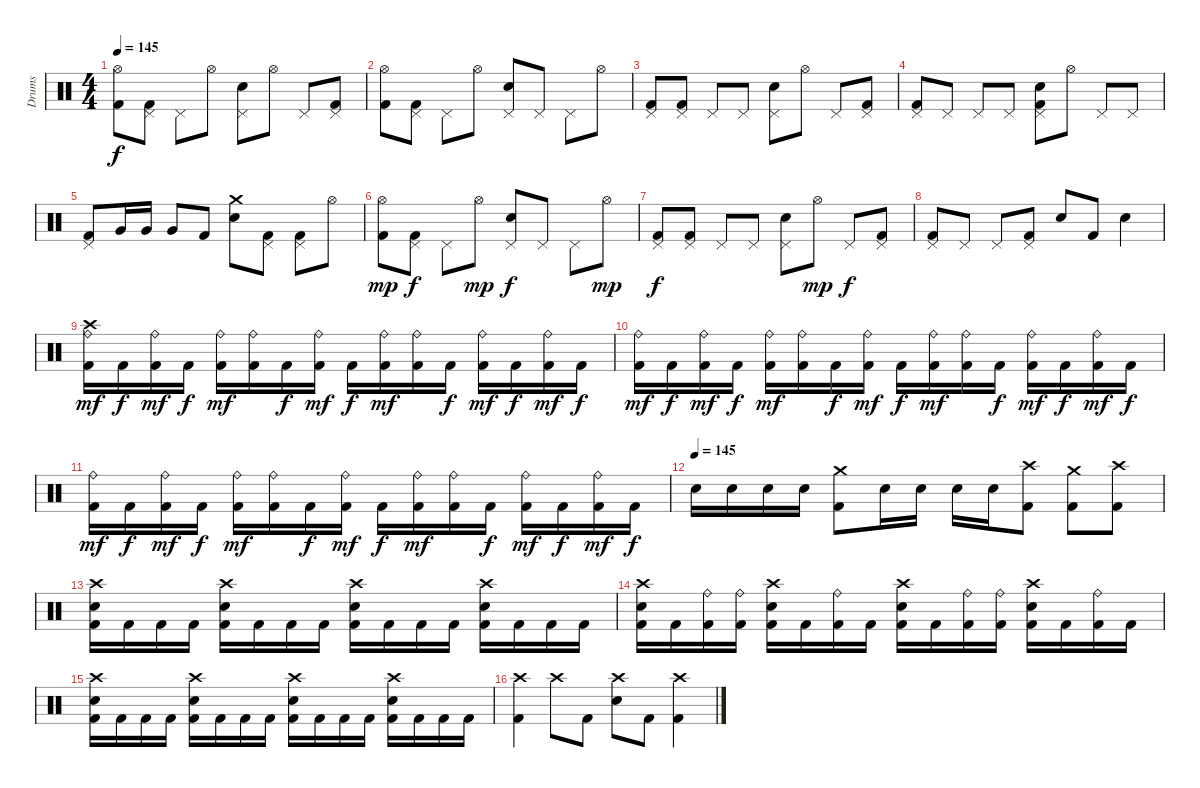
\track ("Drums" "Drums") {instrument percussion}
\staff {score}
\articulation defaults
\ts (4 4)
\tempo 145
\clef neutral
\ks c
("Hi-Hat (open)" "Kick (hit) 2").8{dy f} ("Pedal Hi-Hat (hit)" "Kick (hit) 2").8 "Pedal Hi-Hat (hit)".8 "Hi-Hat (open)".8 ("Pedal Hi-Hat (hit)" "Electric Snare (hit)").8 "Hi-Hat (open)".8 "Pedal Hi-Hat (hit)".8 ("Pedal Hi-Hat (hit)" "Kick (hit) 2").8 |
("Hi-Hat (open)" "Kick (hit) 2").8 ("Pedal Hi-Hat (hit)" "Kick (hit) 2").8 "Pedal Hi-Hat (hit)".8 "Hi-Hat (open)".8 ("Pedal Hi-Hat (hit)" "Electric Snare (hit)").8 "Pedal Hi-Hat (hit)".8 "Pedal Hi-Hat (hit)".8 "Hi-Hat (open)".8 |
("Pedal Hi-Hat (hit)" "Kick (hit) 2").8 ("Pedal Hi-Hat (hit)" "Kick (hit) 2").8 "Pedal Hi-Hat (hit)".8 "Pedal Hi-Hat (hit)".8 ("Pedal Hi-Hat (hit)" "Electric Snare (hit)").8 "Hi-Hat (open)".8 "Pedal Hi-Hat (hit)".8 ("Pedal Hi-Hat (hit)" "Kick (hit) 2").8 |
("Pedal Hi-Hat (hit)" "Kick (hit) 2").8 "Pedal Hi-Hat (hit)".8 "Pedal Hi-Hat (hit)".8 "Pedal Hi-Hat (hit)".8 ("Pedal Hi-Hat (hit)" "Electric Snare (hit)" "Kick (hit) 2").8 "Hi-Hat (open)".8 "Pedal Hi-Hat (hit)".8 "Pedal Hi-Hat (hit)".8 |
("Pedal Hi-Hat (hit)" "Kick (hit) 2").8 "Very Low Tom (hit)".16 "Very Low Tom (hit)".16 "Very Low Tom (hit)".8 "Kick (hit) 2".8 ("Crash medium (hit)" "Electric Snare (hit)").8 ("Pedal Hi-Hat (hit)" "Kick (hit) 2").8 ("Pedal Hi-Hat (hit)" "Kick (hit) 2").8 "Hi-Hat (open)".8 |
("Hi-Hat (open)" "Kick (hit) 2").8{dy mp} ("Pedal Hi-Hat (hit)" "Kick (hit) 2").8{dy f} "Pedal Hi-Hat (hit)".8 "Hi-Hat (open)".8{dy mp} ("Pedal Hi-Hat (hit)" "Electric Snare (hit)").8{dy f} "Pedal Hi-Hat (hit)".8 "Pedal Hi-Hat (hit)".8 "Hi-Hat (open)".8{dy mp} |
("Pedal Hi-Hat (hit)" "Kick (hit) 2").8{dy f} ("Pedal Hi-Hat (hit)" "Kick (hit) 2").8 "Pedal Hi-Hat (hit)".8 "Pedal Hi-Hat (hit)".8 ("Pedal Hi-Hat (hit)" "Electric Snare (hit)").8 "Hi-Hat (open)".8{dy mp} "Pedal Hi-Hat (hit)".8{dy f} ("Pedal Hi-Hat (hit)" "Kick (hit) 2").8 |
("Pedal Hi-Hat (hit)" "Kick (hit) 2").8 "Pedal Hi-Hat (hit)".8 "Pedal Hi-Hat (hit)".8 ("Pedal Hi-Hat (hit)" "Kick (hit) 2").8 "Electric Snare (hit)".8 "Kick (hit) 2".8 "Electric Snare (hit)".4 |
("Crash high (hit)" "Ride (bell)" "Kick (hit) 2").16{dy mf} "Kick (hit) 2".16{dy f} ("Ride (bell)" "Kick (hit) 2").16{dy mf} "Kick (hit) 2".16{dy f} ("Ride (bell)" "Kick (hit) 2").16{dy mf} ("Ride (bell)" "Kick (hit) 2").16 "Kick (hit) 2".16{dy f} ("Ride (bell)" "Kick (hit) 2").16{dy mf} "Kick (hit) 2".16{dy f} ("Ride (bell)" "Kick (hit) 2").16{dy mf} ("Ride (bell)" "Kick (hit) 2").16 "Kick (hit) 2".16{dy f} ("Ride (bell)" "Kick (hit) 2").16{dy mf} "Kick (hit) 2".16{dy f} ("Ride (bell)" "Kick (hit) 2").16{dy mf} "Kick (hit) 2".16{dy f} |
("Ride (bell)" "Kick (hit) 2").16{dy mf} "Kick (hit) 2".16{dy f} ("Ride (bell)" "Kick (hit) 2").16{dy mf} "Kick (hit) 2".16{dy f} ("Ride (bell)" "Kick (hit) 2").16{dy mf} ("Ride (bell)" "Kick (hit) 2").16 "Kick (hit) 2".16{dy f} ("Ride (bell)" "Kick (hit) 2").16{dy mf} "Kick (hit) 2".16{dy f} ("Ride (bell)" "Kick (hit) 2").16{dy mf} ("Ride (bell)" "Kick (hit) 2").16 "Kick (hit) 2".16{dy f} ("Ride (bell)" "Kick (hit) 2").16{dy mf} "Kick (hit) 2".16{dy f} ("Ride (bell)" "Kick (hit) 2").16{dy mf} "Kick (hit) 2".16{dy f} |
("Ride (bell)" "Kick (hit) 2").16{dy mf} "Kick (hit) 2".16{dy f} ("Ride (bell)" "Kick (hit) 2").16{dy mf} "Kick (hit) 2".16{dy f} ("Ride (bell)" "Kick (hit) 2").16{dy mf} ("Ride (bell)" "Kick (hit) 2").16 "Kick (hit) 2".16{dy f} ("Ride (bell)" "Kick (hit) 2").16{dy mf} "Kick (hit) 2".16{dy f} ("Ride (bell)" "Kick (hit) 2").16{dy mf} ("Ride (bell)" "Kick (hit) 2").16 "Kick (hit) 2".16{dy f} ("Ride (bell)" "Kick (hit) 2").16{dy mf} "Kick (hit) 2".16{dy f} ("Ride (bell)" "Kick (hit) 2").16{dy mf} "Kick (hit) 2".16{dy f} |
\tempo (145)
"Electric Snare (hit)".16 "Electric Snare (hit)".16 "Electric Snare (hit)".16 "Electric Snare (hit)".16 ("Crash medium (hit)" "Kick (hit) 2").8 "Electric Snare (hit)".16 "Electric Snare (hit)".16 "Electric Snare (hit)".16 "Electric Snare (hit)".16 ("Crash high (hit)" "Kick (hit) 2").8 ("Crash medium (hit)" "Kick (hit) 2").8 ("Crash high (hit)" "Kick (hit) 2").8 |
("Crash high (hit)" "Electric Snare (hit)" "Kick (hit) 2").16 "Kick (hit) 2".16 "Kick (hit) 2".16 "Kick (hit) 2".16 ("Crash high (hit)" "Electric Snare (hit)" "Kick (hit) 2").16 "Kick (hit) 2".16 "Kick (hit) 2".16 "Kick (hit) 2".16 ("Crash high (hit)" "Electric Snare (hit)" "Kick (hit) 2").16 "Kick (hit) 2".16 "Kick (hit) 2".16 "Kick (hit) 2".16 ("Crash high (hit)" "Electric Snare (hit)" "Kick (hit) 2").16 "Kick (hit) 2".16 "Kick (hit) 2".16 "Kick (hit) 2".16 |
("Crash high (hit)" "Electric Snare (hit)" "Kick (hit) 2").16 "Kick (hit) 2".16 ("Ride (bell)" "Kick (hit) 2").16 ("Ride (bell)" "Kick (hit) 2").16 ("Crash high (hit)" "Electric Snare (hit)" "Kick (hit) 2").16 "Kick (hit) 2".16 ("Ride (bell)" "Kick (hit) 2").16 "Kick (hit) 2".16 ("Crash high (hit)" "Electric Snare (hit)" "Kick (hit) 2").16 "Kick (hit) 2".16 ("Ride (bell)" "Kick (hit) 2").16 ("Ride (bell)" "Kick (hit) 2").16 ("Crash high (hit)" "Electric Snare (hit)" "Kick (hit) 2").16 "Kick (hit) 2".16 ("Ride (bell)" "Kick (hit) 2").16 "Kick (hit) 2".16 |
("Crash high (hit)" "Electric Snare (hit)" "Kick (hit) 2").16 "Kick (hit) 2".16 "Kick (hit) 2".16 "Kick (hit) 2".16 ("Crash high (hit)" "Electric Snare (hit)" "Kick (hit) 2").16 "Kick (hit) 2".16 "Kick (hit) 2".16 "Kick (hit) 2".16 ("Crash high (hit)" "Electric Snare (hit)" "Kick (hit) 2").16 "Kick (hit) 2".16 "Kick (hit) 2".16 "Kick (hit) 2".16 ("Crash high (hit)" "Electric Snare (hit)" "Kick (hit) 2").16 "Kick (hit) 2".16 "Kick (hit) 2".16 "Kick (hit) 2".16 |
("Crash high (hit)" "Kick (hit) 2").4 "Crash high (hit)".8 "Kick (hit) 2".8 ("Crash high (hit)" "Electric Snare (hit)").8 "Kick (hit) 2".8 ("Crash high (hit)" "Kick (hit) 2").4
